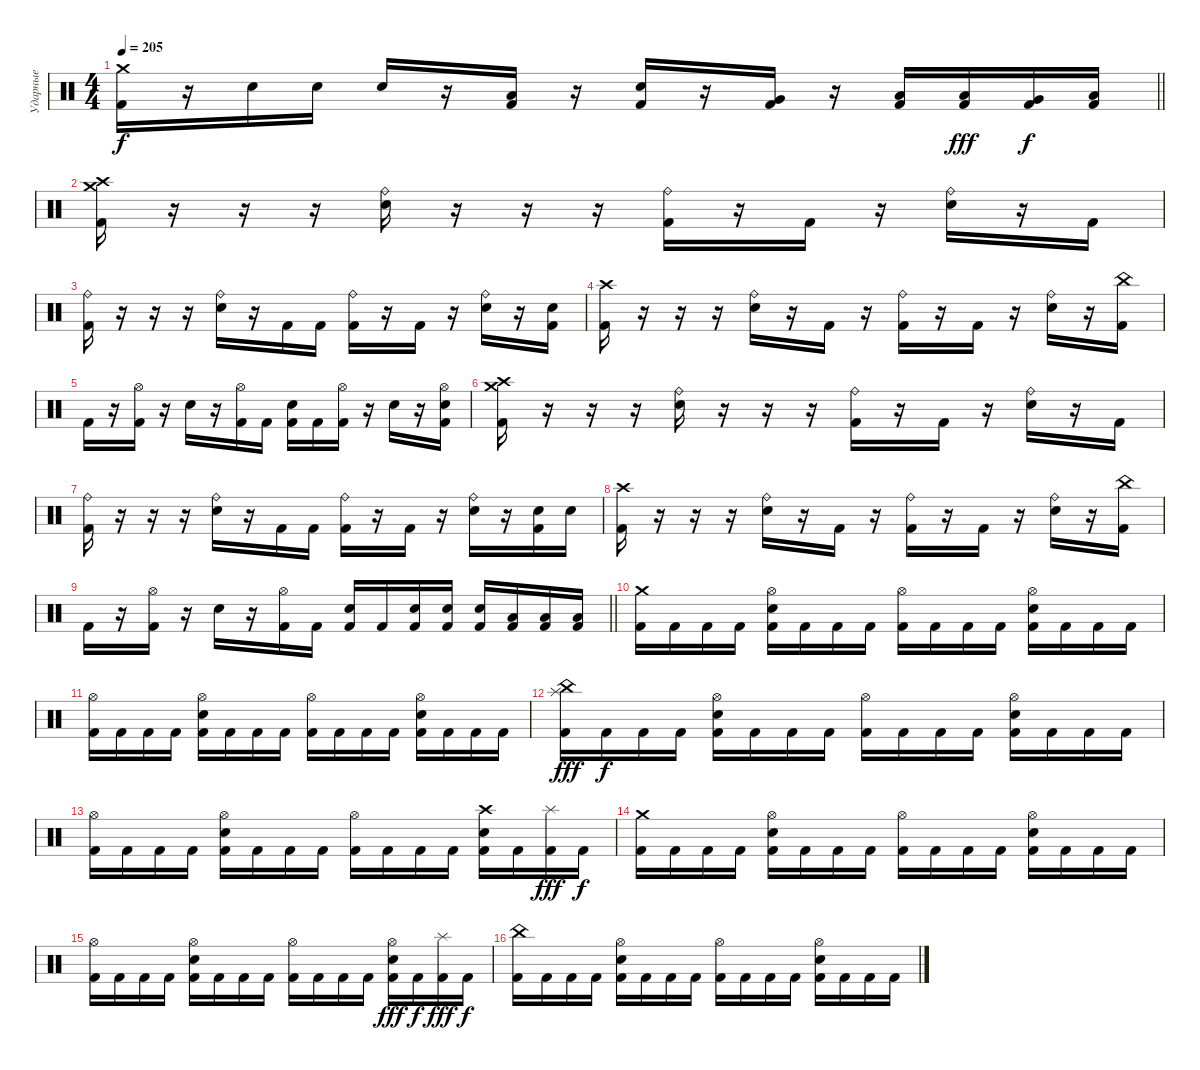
\track ("Ударные" "Ударные") {instrument percussion}
\staff {score}
\articulation defaults
\ts (4 4)
\tempo 205
\clef neutral
\barLineRight lightlight
\ks c
("Crash medium (hit)" "Kick (hit) 2").16{dy f} r.16 "Snare (hit) 2".16 "Snare (hit) 2".16 "Snare (hit) 2".16 r.16 ("Low Floor Tom (hit)" "Kick (hit) 2").16 r.16 ("Snare (hit) 2" "Kick (hit) 2").16 r.16 ("Very Low Tom (hit)" "Kick (hit) 2").16 r.16 ("Low Tom (hit)" "Kick (hit) 2").16 ("Low Tom (hit)" "Kick (hit) 2").16{dy fff} ("Very Low Tom (hit)" "Kick (hit) 2").16{dy f} ("Low Floor Tom (hit)" "Kick (hit) 2").16 |
("Crash medium (hit)" "Crash high (hit)" "Kick (hit) 2").16 r.16 r.16 r.16 ("Ride (bell)" "Snare (hit) 2").16 r.16 r.16 r.16 ("Ride (bell)" "Kick (hit) 2").16 r.16 "Kick (hit) 2".16 r.16 ("Ride (bell)" "Snare (hit) 2").16 r.16 "Kick (hit) 2".16 |
("Ride (bell)" "Kick (hit) 2").16 r.16 r.16 r.16 ("Ride (bell)" "Snare (hit) 2").16 r.16 "Kick (hit) 2".16 "Kick (hit) 2".16 ("Ride (bell)" "Kick (hit) 2").16 r.16 "Kick (hit) 2".16 r.16 ("Ride (bell)" "Snare (hit) 2").16 r.16 ("Snare (hit) 2" "Kick (hit) 2").16 |
("Crash high (hit)" "Kick (hit) 2").16 r.16 r.16 r.16 ("Ride (bell)" "Snare (hit) 2").16 r.16 "Kick (hit) 2".16 r.16 ("Ride (bell)" "Kick (hit) 2").16 r.16 "Kick (hit) 2".16 r.16 ("Ride (bell)" "Snare (hit) 2").16 r.16 ("China (hit)" "Kick (hit) 2").16 |
"Kick (hit) 2".16 r.16 ("Hi-Hat (open)" "Kick (hit) 2").16 r.16 "Snare (hit) 2".16 r.16 ("Hi-Hat (open)" "Kick (hit) 2").16 "Kick (hit) 2".16 ("Snare (hit) 2" "Kick (hit) 2").16 "Kick (hit) 2".16 ("Hi-Hat (open)" "Kick (hit) 2").16 r.16 "Snare (hit) 2".16 r.16 ("Hi-Hat (open)" "Snare (hit) 2" "Kick (hit) 2").16 |
("Crash medium (hit)" "Crash high (hit)" "Kick (hit) 2").16 r.16 r.16 r.16 ("Ride (bell)" "Snare (hit) 2").16 r.16 r.16 r.16 ("Ride (bell)" "Kick (hit) 2").16 r.16 "Kick (hit) 2".16 r.16 ("Ride (bell)" "Snare (hit) 2").16 r.16 "Kick (hit) 2".16 |
("Ride (bell)" "Kick (hit) 2").16 r.16 r.16 r.16 ("Ride (bell)" "Snare (hit) 2").16 r.16 "Kick (hit) 2".16 "Kick (hit) 2".16 ("Ride (bell)" "Kick (hit) 2").16 r.16 "Kick (hit) 2".16 r.16 ("Ride (bell)" "Snare (hit) 2").16 r.16 ("Snare (hit) 2" "Kick (hit) 2").16 "Snare (hit) 2".16 |
("Crash high (hit)" "Kick (hit) 2").16 r.16 r.16 r.16 ("Ride (bell)" "Snare (hit) 2").16 r.16 "Kick (hit) 2".16 r.16 ("Ride (bell)" "Kick (hit) 2").16 r.16 "Kick (hit) 2".16 r.16 ("Ride (bell)" "Snare (hit) 2").16 r.16 ("China (hit)" "Kick (hit) 2").16 |
\barLineRight lightlight "Kick (hit) 2".16
r.16 ("Hi-Hat (open)" "Kick (hit) 2").16 r.16 "Snare (hit) 2".16 r.16 ("Hi-Hat (open)" "Kick (hit) 2").16 "Kick (hit) 2".16 ("Snare (hit) 2" "Kick (hit) 2").16 "Kick (hit) 2".16 ("Snare (hit) 2" "Kick (hit) 2").16 ("Snare (hit) 2" "Kick (hit) 2").16 ("Snare (hit) 2" "Kick (hit) 2").16 ("Low Tom (hit)" "Kick (hit) 2").16 ("Low Tom (hit)" "Kick (hit) 2").16 ("Low Tom (hit)" "Kick (hit) 2").16 |
("Crash medium (hit)" "Kick (hit) 2").16 "Kick (hit) 2".16 "Kick (hit) 2".16 "Kick (hit) 2".16 ("Hi-Hat (open)" "Snare (hit) 2" "Kick (hit) 2").16 "Kick (hit) 2".16 "Kick (hit) 2".16 "Kick (hit) 2".16 ("Hi-Hat (open)" "Kick (hit) 2").16 "Kick (hit) 2".16 "Kick (hit) 2".16 "Kick (hit) 2".16 ("Hi-Hat (open)" "Snare (hit) 2" "Kick (hit) 2").16 "Kick (hit) 2".16 "Kick (hit) 2".16 "Kick (hit) 2".16 |
("Hi-Hat (open)" "Kick (hit) 2").16 "Kick (hit) 2".16 "Kick (hit) 2".16 "Kick (hit) 2".16 ("Hi-Hat (open)" "Snare (hit) 2" "Kick (hit) 2").16 "Kick (hit) 2".16 "Kick (hit) 2".16 "Kick (hit) 2".16 ("Hi-Hat (open)" "Kick (hit) 2").16 "Kick (hit) 2".16 "Kick (hit) 2".16 "Kick (hit) 2".16 ("Hi-Hat (open)" "Snare (hit) 2" "Kick (hit) 2").16 "Kick (hit) 2".16 "Kick (hit) 2".16 "Kick (hit) 2".16 |
("China (hit)" "Splash (hit)" "Kick (hit) 2").16{dy fff} "Kick (hit) 2".16{dy f} "Kick (hit) 2".16 "Kick (hit) 2".16 ("Hi-Hat (open)" "Snare (hit) 2" "Kick (hit) 2").16 "Kick (hit) 2".16 "Kick (hit) 2".16 "Kick (hit) 2".16 ("Hi-Hat (open)" "Kick (hit) 2").16 "Kick (hit) 2".16 "Kick (hit) 2".16 "Kick (hit) 2".16 ("Hi-Hat (open)" "Snare (hit) 2" "Kick (hit) 2").16 "Kick (hit) 2".16 "Kick (hit) 2".16 "Kick (hit) 2".16 |
("Hi-Hat (open)" "Kick (hit) 2").16 "Kick (hit) 2".16 "Kick (hit) 2".16 "Kick (hit) 2".16 ("Hi-Hat (open)" "Snare (hit) 2" "Kick (hit) 2").16 "Kick (hit) 2".16 "Kick (hit) 2".16 "Kick (hit) 2".16 ("Hi-Hat (open)" "Kick (hit) 2").16 "Kick (hit) 2".16 "Kick (hit) 2".16 "Kick (hit) 2".16 ("Crash high (hit)" "Snare (hit) 2" "Kick (hit) 2").16 "Kick (hit) 2".16 ("Splash (hit)" "Kick (hit) 2").16{dy fff} "Kick (hit) 2".16{dy f} |
("Crash medium (hit)" "Kick (hit) 2").16 "Kick (hit) 2".16 "Kick (hit) 2".16 "Kick (hit) 2".16 ("Hi-Hat (open)" "Snare (hit) 2" "Kick (hit) 2").16 "Kick (hit) 2".16 "Kick (hit) 2".16 "Kick (hit) 2".16 ("Hi-Hat (open)" "Kick (hit) 2").16 "Kick (hit) 2".16 "Kick (hit) 2".16 "Kick (hit) 2".16 ("Hi-Hat (open)" "Snare (hit) 2" "Kick (hit) 2").16 "Kick (hit) 2".16 "Kick (hit) 2".16 "Kick (hit) 2".16 |
("Hi-Hat (open)" "Kick (hit) 2").16 "Kick (hit) 2".16 "Kick (hit) 2".16 "Kick (hit) 2".16 ("Hi-Hat (open)" "Snare (hit) 2" "Kick (hit) 2").16 "Kick (hit) 2".16 "Kick (hit) 2".16 "Kick (hit) 2".16 ("Hi-Hat (open)" "Kick (hit) 2").16 "Kick (hit) 2".16 "Kick (hit) 2".16 "Kick (hit) 2".16 ("Hi-Hat (open)" "Snare (hit) 2" "Kick (hit) 2").16{dy fff} "Kick (hit) 2".16{dy f} ("Splash (hit)" "Kick (hit) 2").16{dy fff} "Kick (hit) 2".16{dy f} |
("China (hit)" "Kick (hit) 2").16 "Kick (hit) 2".16 "Kick (hit) 2".16 "Kick (hit) 2".16 ("Hi-Hat (open)" "Snare (hit) 2" "Kick (hit) 2").16 "Kick (hit) 2".16 "Kick (hit) 2".16 "Kick (hit) 2".16 ("Hi-Hat (open)" "Kick (hit) 2").16 "Kick (hit) 2".16 "Kick (hit) 2".16 "Kick (hit) 2".16 ("Hi-Hat (open)" "Snare (hit) 2" "Kick (hit) 2").16 "Kick (hit) 2".16 "Kick (hit) 2".16 "Kick (hit) 2".16
